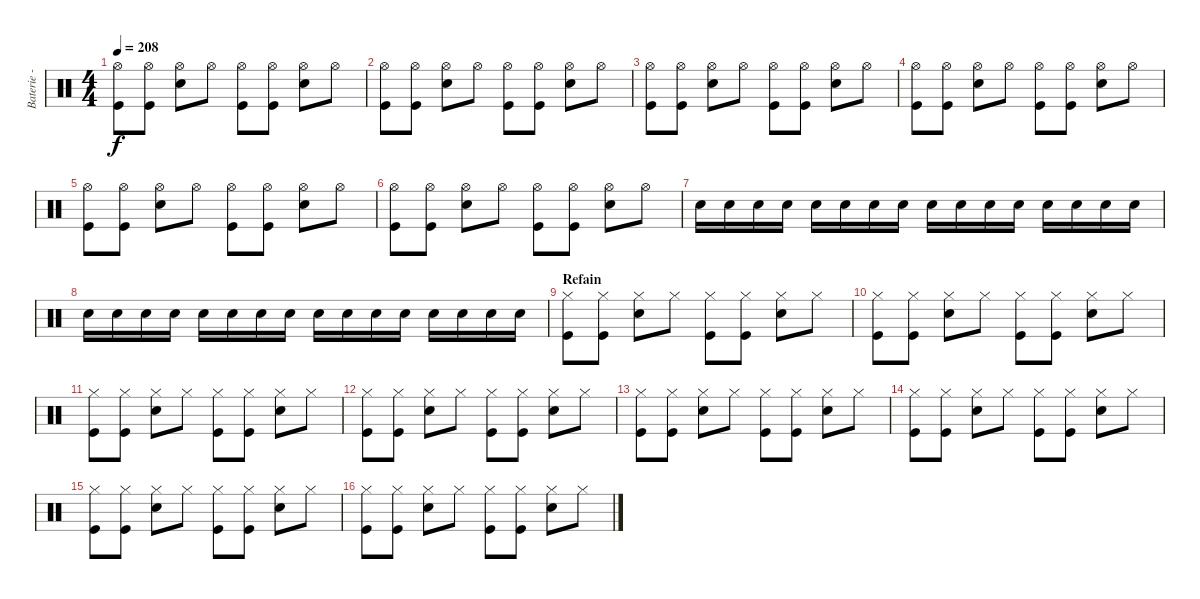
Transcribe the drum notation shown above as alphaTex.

\track ("Baterie - Guillaume" "Baterie - ") {instrument percussion}
\staff {score}
\articulation defaults
\ts (4 4)
\tempo 208
\clef neutral
\ks c
("Hi-Hat (open)" "Kick (hit)").8{dy f} ("Hi-Hat (open)" "Kick (hit)").8 ("Hi-Hat (open)" "Electric Snare (hit)").8 "Hi-Hat (open)".8 ("Hi-Hat (open)" "Kick (hit)").8 ("Hi-Hat (open)" "Kick (hit)").8 ("Hi-Hat (open)" "Electric Snare (hit)").8 "Hi-Hat (open)".8 |
("Hi-Hat (open)" "Kick (hit)").8 ("Hi-Hat (open)" "Kick (hit)").8 ("Hi-Hat (open)" "Electric Snare (hit)").8 "Hi-Hat (open)".8 ("Hi-Hat (open)" "Kick (hit)").8 ("Hi-Hat (open)" "Kick (hit)").8 ("Hi-Hat (open)" "Electric Snare (hit)").8 "Hi-Hat (open)".8 |
("Hi-Hat (open)" "Kick (hit)").8 ("Hi-Hat (open)" "Kick (hit)").8 ("Hi-Hat (open)" "Electric Snare (hit)").8 "Hi-Hat (open)".8 ("Hi-Hat (open)" "Kick (hit)").8 ("Hi-Hat (open)" "Kick (hit)").8 ("Hi-Hat (open)" "Electric Snare (hit)").8 "Hi-Hat (open)".8 |
("Hi-Hat (open)" "Kick (hit)").8 ("Hi-Hat (open)" "Kick (hit)").8 ("Hi-Hat (open)" "Electric Snare (hit)").8 "Hi-Hat (open)".8 ("Hi-Hat (open)" "Kick (hit)").8 ("Hi-Hat (open)" "Kick (hit)").8 ("Hi-Hat (open)" "Electric Snare (hit)").8 "Hi-Hat (open)".8 |
("Hi-Hat (open)" "Kick (hit)").8 ("Hi-Hat (open)" "Kick (hit)").8 ("Hi-Hat (open)" "Electric Snare (hit)").8 "Hi-Hat (open)".8 ("Hi-Hat (open)" "Kick (hit)").8 ("Hi-Hat (open)" "Kick (hit)").8 ("Hi-Hat (open)" "Electric Snare (hit)").8 "Hi-Hat (open)".8 |
("Hi-Hat (open)" "Kick (hit)").8 ("Hi-Hat (open)" "Kick (hit)").8 ("Hi-Hat (open)" "Electric Snare (hit)").8 "Hi-Hat (open)".8 ("Hi-Hat (open)" "Kick (hit)").8 ("Hi-Hat (open)" "Kick (hit)").8 ("Hi-Hat (open)" "Electric Snare (hit)").8 "Hi-Hat (open)".8 |
"Electric Snare (hit)".16 "Electric Snare (hit)".16 "Electric Snare (hit)".16 "Electric Snare (hit)".16 "Electric Snare (hit)".16 "Electric Snare (hit)".16 "Electric Snare (hit)".16 "Electric Snare (hit)".16 "Electric Snare (hit)".16 "Electric Snare (hit)".16 "Electric Snare (hit)".16 "Electric Snare (hit)".16 "Electric Snare (hit)".16 "Electric Snare (hit)".16 "Electric Snare (hit)".16 "Electric Snare (hit)".16 |
"Electric Snare (hit)".16 "Electric Snare (hit)".16 "Electric Snare (hit)".16 "Electric Snare (hit)".16 "Electric Snare (hit)".16 "Electric Snare (hit)".16 "Electric Snare (hit)".16 "Electric Snare (hit)".16 "Electric Snare (hit)".16 "Electric Snare (hit)".16 "Electric Snare (hit)".16 "Electric Snare (hit)".16 "Electric Snare (hit)".16 "Electric Snare (hit)".16 "Electric Snare (hit)".16 "Electric Snare (hit)".16 |
\section ("" "Refain")
("Hi-Hat (closed)" "Kick (hit)").8 ("Hi-Hat (closed)" "Kick (hit)").8 ("Hi-Hat (closed)" "Electric Snare (hit)").8 "Hi-Hat (closed)".8 ("Hi-Hat (closed)" "Kick (hit)").8 ("Hi-Hat (closed)" "Kick (hit)").8 ("Hi-Hat (closed)" "Electric Snare (hit)").8 "Hi-Hat (closed)".8 |
("Hi-Hat (closed)" "Kick (hit)").8 ("Hi-Hat (closed)" "Kick (hit)").8 ("Hi-Hat (closed)" "Electric Snare (hit)").8 "Hi-Hat (closed)".8 ("Hi-Hat (closed)" "Kick (hit)").8 ("Hi-Hat (closed)" "Kick (hit)").8 ("Hi-Hat (closed)" "Electric Snare (hit)").8 "Hi-Hat (closed)".8 |
("Hi-Hat (closed)" "Kick (hit)").8 ("Hi-Hat (closed)" "Kick (hit)").8 ("Hi-Hat (closed)" "Electric Snare (hit)").8 "Hi-Hat (closed)".8 ("Hi-Hat (closed)" "Kick (hit)").8 ("Hi-Hat (closed)" "Kick (hit)").8 ("Hi-Hat (closed)" "Electric Snare (hit)").8 "Hi-Hat (closed)".8 |
("Hi-Hat (closed)" "Kick (hit)").8 ("Hi-Hat (closed)" "Kick (hit)").8 ("Hi-Hat (closed)" "Electric Snare (hit)").8 "Hi-Hat (closed)".8 ("Hi-Hat (closed)" "Kick (hit)").8 ("Hi-Hat (closed)" "Kick (hit)").8 ("Hi-Hat (closed)" "Electric Snare (hit)").8 "Hi-Hat (closed)".8 |
("Hi-Hat (closed)" "Kick (hit)").8 ("Hi-Hat (closed)" "Kick (hit)").8 ("Hi-Hat (closed)" "Electric Snare (hit)").8 "Hi-Hat (closed)".8 ("Hi-Hat (closed)" "Kick (hit)").8 ("Hi-Hat (closed)" "Kick (hit)").8 ("Hi-Hat (closed)" "Electric Snare (hit)").8 "Hi-Hat (closed)".8 |
("Hi-Hat (closed)" "Kick (hit)").8 ("Hi-Hat (closed)" "Kick (hit)").8 ("Hi-Hat (closed)" "Electric Snare (hit)").8 "Hi-Hat (closed)".8 ("Hi-Hat (closed)" "Kick (hit)").8 ("Hi-Hat (closed)" "Kick (hit)").8 ("Hi-Hat (closed)" "Electric Snare (hit)").8 "Hi-Hat (closed)".8 |
("Hi-Hat (closed)" "Kick (hit)").8 ("Hi-Hat (closed)" "Kick (hit)").8 ("Hi-Hat (closed)" "Electric Snare (hit)").8 "Hi-Hat (closed)".8 ("Hi-Hat (closed)" "Kick (hit)").8 ("Hi-Hat (closed)" "Kick (hit)").8 ("Hi-Hat (closed)" "Electric Snare (hit)").8 "Hi-Hat (closed)".8 |
("Hi-Hat (closed)" "Kick (hit)").8 ("Hi-Hat (closed)" "Kick (hit)").8 ("Hi-Hat (closed)" "Electric Snare (hit)").8 "Hi-Hat (closed)".8 ("Hi-Hat (closed)" "Kick (hit)").8 ("Hi-Hat (closed)" "Kick (hit)").8 ("Hi-Hat (closed)" "Electric Snare (hit)").8 "Hi-Hat (closed)".8
